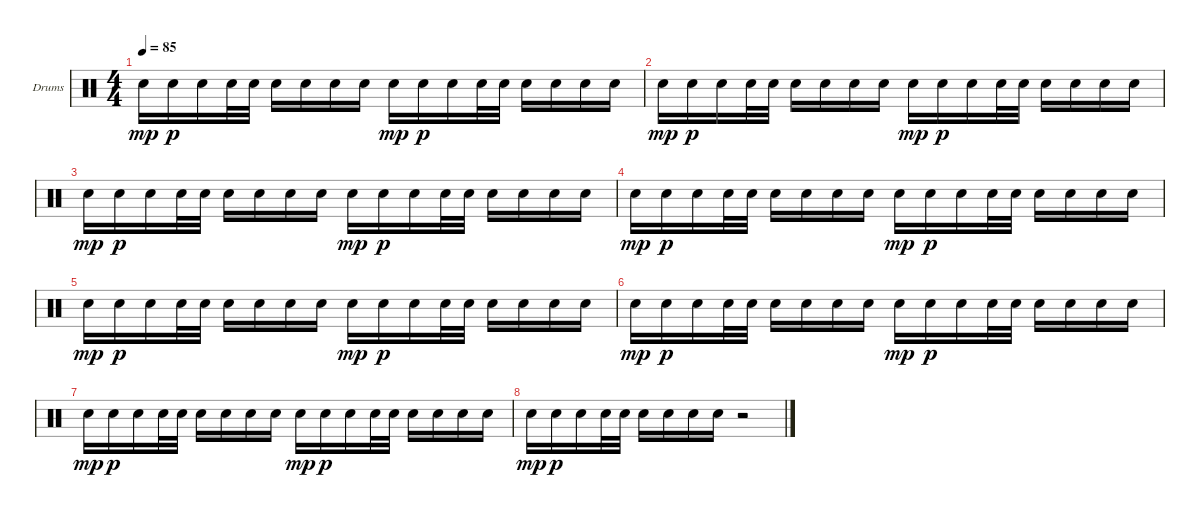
\defaultSystemsLayout 4
\bracketExtendMode groupsimilarinstruments
\firstSystemTrackNameOrientation horizontal
\otherSystemsTrackNameOrientation horizontal
\track ("Drumkit" "Drums") {instrument percussion}
\staff {score}
\articulation defaults
\ts (4 4)
\tempo 85
\clef neutral
\ks c "Snare (hit) 2".16{dy mp} "Snare (hit) 2".16{dy p} "Snare (hit) 2".16 "Snare (hit) 2".32 "Snare (hit) 2".32 "Snare (hit) 2".16 "Snare (hit) 2".16 "Snare (hit) 2".16 "Snare (hit) 2".16 "Snare (hit) 2".16{dy mp} "Snare (hit) 2".16{dy p} "Snare (hit) 2".16 "Snare (hit) 2".32 "Snare (hit) 2".32 "Snare (hit) 2".16 "Snare (hit) 2".16 "Snare (hit) 2".16 "Snare (hit) 2".16
|
"Snare (hit) 2".16{dy mp} "Snare (hit) 2".16{dy p} "Snare (hit) 2".16 "Snare (hit) 2".32 "Snare (hit) 2".32 "Snare (hit) 2".16 "Snare (hit) 2".16 "Snare (hit) 2".16 "Snare (hit) 2".16 "Snare (hit) 2".16{dy mp} "Snare (hit) 2".16{dy p} "Snare (hit) 2".16 "Snare (hit) 2".32 "Snare (hit) 2".32 "Snare (hit) 2".16 "Snare (hit) 2".16 "Snare (hit) 2".16 "Snare (hit) 2".16 |
"Snare (hit) 2".16{dy mp} "Snare (hit) 2".16{dy p} "Snare (hit) 2".16 "Snare (hit) 2".32 "Snare (hit) 2".32 "Snare (hit) 2".16 "Snare (hit) 2".16 "Snare (hit) 2".16 "Snare (hit) 2".16 "Snare (hit) 2".16{dy mp} "Snare (hit) 2".16{dy p} "Snare (hit) 2".16 "Snare (hit) 2".32 "Snare (hit) 2".32 "Snare (hit) 2".16 "Snare (hit) 2".16 "Snare (hit) 2".16 "Snare (hit) 2".16 |
"Snare (hit) 2".16{dy mp} "Snare (hit) 2".16{dy p} "Snare (hit) 2".16 "Snare (hit) 2".32 "Snare (hit) 2".32 "Snare (hit) 2".16 "Snare (hit) 2".16 "Snare (hit) 2".16 "Snare (hit) 2".16 "Snare (hit) 2".16{dy mp} "Snare (hit) 2".16{dy p} "Snare (hit) 2".16 "Snare (hit) 2".32 "Snare (hit) 2".32 "Snare (hit) 2".16 "Snare (hit) 2".16 "Snare (hit) 2".16 "Snare (hit) 2".16 |
"Snare (hit) 2".16{dy mp} "Snare (hit) 2".16{dy p} "Snare (hit) 2".16 "Snare (hit) 2".32 "Snare (hit) 2".32 "Snare (hit) 2".16 "Snare (hit) 2".16 "Snare (hit) 2".16 "Snare (hit) 2".16 "Snare (hit) 2".16{dy mp} "Snare (hit) 2".16{dy p} "Snare (hit) 2".16 "Snare (hit) 2".32 "Snare (hit) 2".32 "Snare (hit) 2".16 "Snare (hit) 2".16 "Snare (hit) 2".16 "Snare (hit) 2".16 |
"Snare (hit) 2".16{dy mp} "Snare (hit) 2".16{dy p} "Snare (hit) 2".16 "Snare (hit) 2".32 "Snare (hit) 2".32 "Snare (hit) 2".16 "Snare (hit) 2".16 "Snare (hit) 2".16 "Snare (hit) 2".16 "Snare (hit) 2".16{dy mp} "Snare (hit) 2".16{dy p} "Snare (hit) 2".16 "Snare (hit) 2".32 "Snare (hit) 2".32 "Snare (hit) 2".16 "Snare (hit) 2".16 "Snare (hit) 2".16 "Snare (hit) 2".16 |
"Snare (hit) 2".16{dy mp} "Snare (hit) 2".16{dy p} "Snare (hit) 2".16 "Snare (hit) 2".32 "Snare (hit) 2".32 "Snare (hit) 2".16 "Snare (hit) 2".16 "Snare (hit) 2".16 "Snare (hit) 2".16 "Snare (hit) 2".16{dy mp} "Snare (hit) 2".16{dy p} "Snare (hit) 2".16 "Snare (hit) 2".32 "Snare (hit) 2".32 "Snare (hit) 2".16 "Snare (hit) 2".16 "Snare (hit) 2".16 "Snare (hit) 2".16 |
"Snare (hit) 2".16{dy mp} "Snare (hit) 2".16{dy p} "Snare (hit) 2".16 "Snare (hit) 2".32 "Snare (hit) 2".32 "Snare (hit) 2".16 "Snare (hit) 2".16 "Snare (hit) 2".16 "Snare (hit) 2".16 r.2
